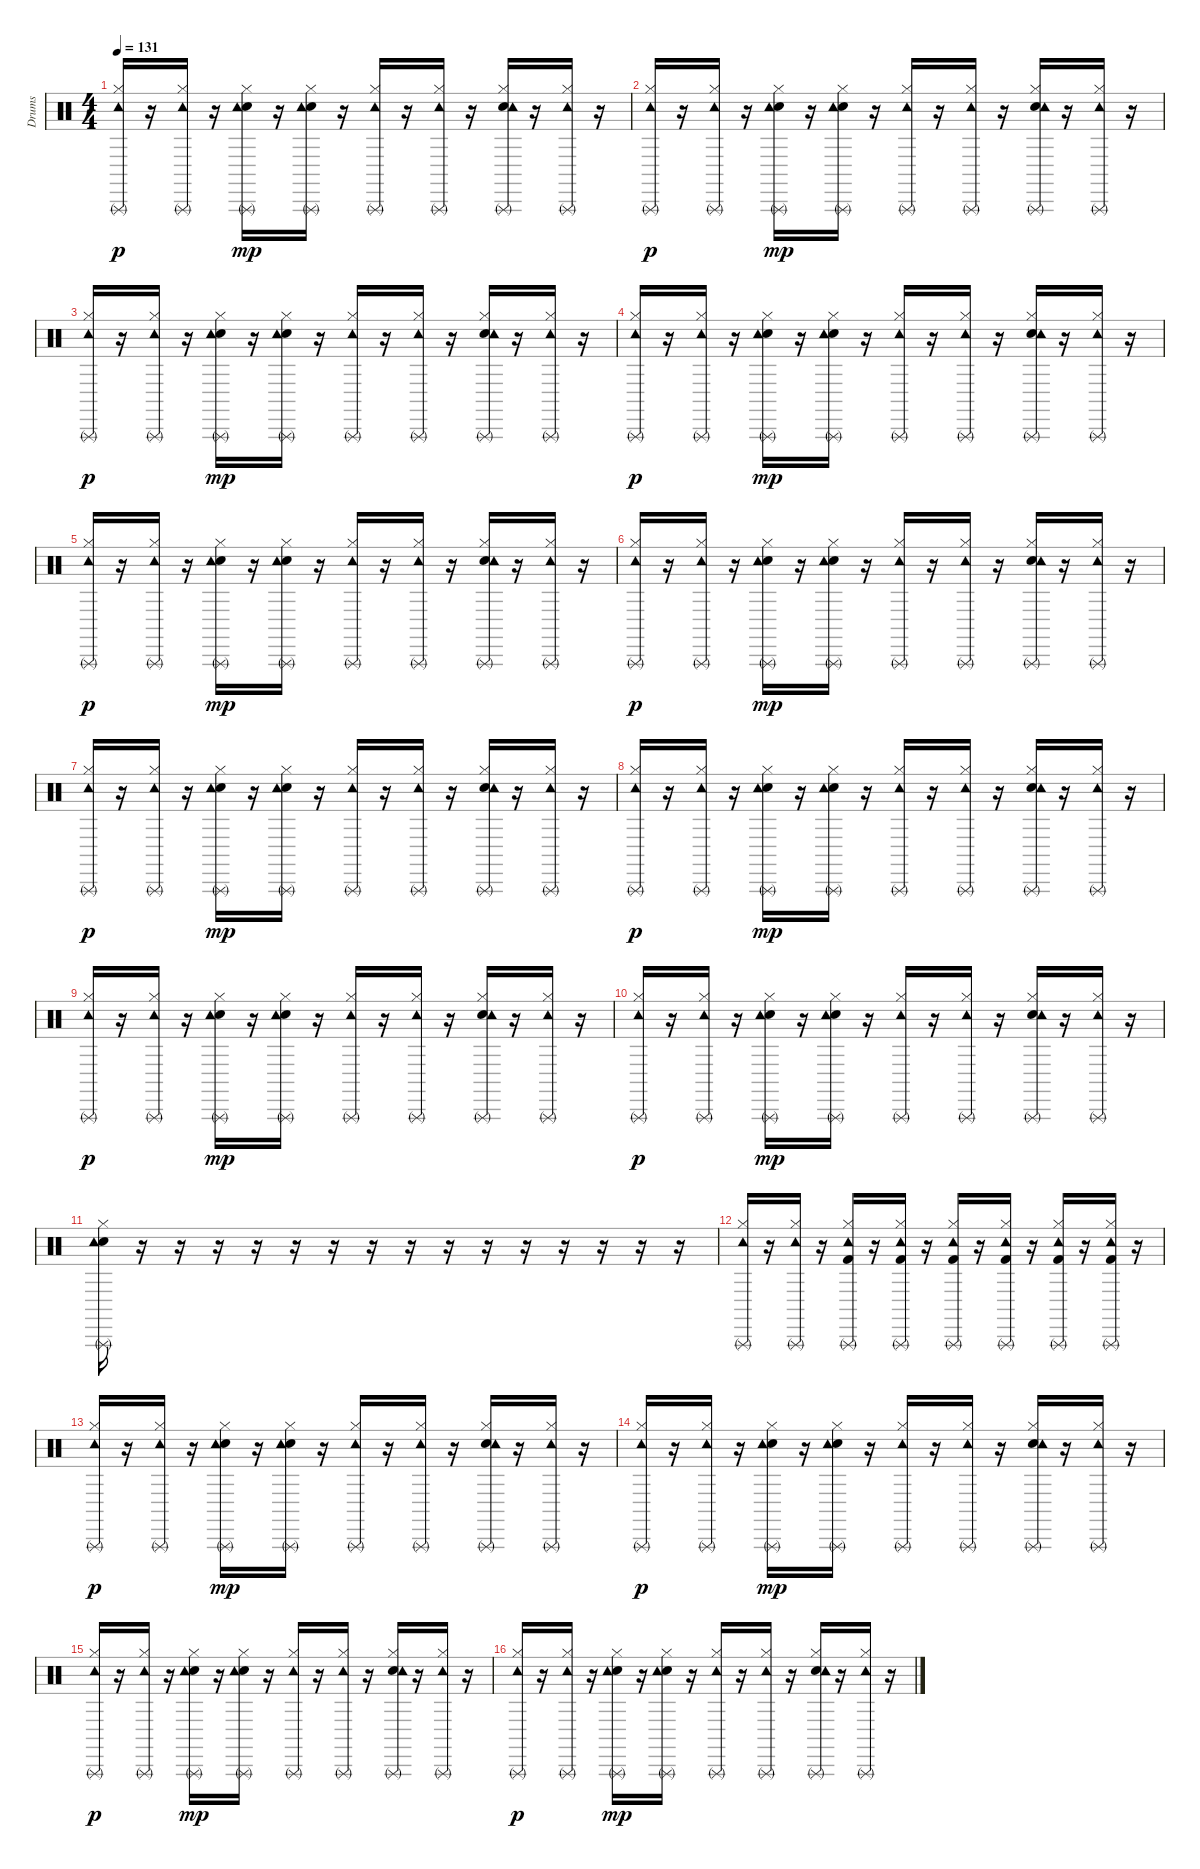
\track ("Drums" "Drums") {instrument percussion}
\staff {score}
\articulation defaults
\ts (4 4)
\tempo 131
\clef neutral
\ks c
("Tambourine (hit)" "Hi-Hat (closed)" "Triangle (rnute)").16{dy p} r.16 ("Tambourine (hit)" "Hi-Hat (closed)" "Triangle (rnute)").16 r.16 ("Electric Snare (hit)" "Tambourine (hit)" "Hi-Hat (closed)" "Triangle (rnute)").16{dy mp} r.16 ("Electric Snare (hit)" "Tambourine (hit)" "Hi-Hat (closed)" "Triangle (rnute)").16 r.16 ("Tambourine (hit)" "Hi-Hat (closed)" "Triangle (rnute)").16 r.16 ("Tambourine (hit)" "Hi-Hat (closed)" "Triangle (rnute)").16 r.16 ("Electric Snare (hit)" "Tambourine (hit)" "Hi-Hat (closed)" "Triangle (rnute)").16 r.16 ("Tambourine (hit)" "Hi-Hat (closed)" "Triangle (rnute)").16 r.16 |
("Tambourine (hit)" "Hi-Hat (closed)" "Triangle (rnute)").16{dy p} r.16 ("Tambourine (hit)" "Hi-Hat (closed)" "Triangle (rnute)").16 r.16 ("Electric Snare (hit)" "Tambourine (hit)" "Hi-Hat (closed)" "Triangle (rnute)").16{dy mp} r.16 ("Electric Snare (hit)" "Tambourine (hit)" "Hi-Hat (closed)" "Triangle (rnute)").16 r.16 ("Tambourine (hit)" "Hi-Hat (closed)" "Triangle (rnute)").16 r.16 ("Tambourine (hit)" "Hi-Hat (closed)" "Triangle (rnute)").16 r.16 ("Electric Snare (hit)" "Tambourine (hit)" "Hi-Hat (closed)" "Triangle (rnute)").16 r.16 ("Tambourine (hit)" "Hi-Hat (closed)" "Triangle (rnute)").16 r.16 |
("Tambourine (hit)" "Hi-Hat (closed)" "Triangle (rnute)").16{dy p} r.16 ("Tambourine (hit)" "Hi-Hat (closed)" "Triangle (rnute)").16 r.16 ("Electric Snare (hit)" "Tambourine (hit)" "Hi-Hat (closed)" "Triangle (rnute)").16{dy mp} r.16 ("Electric Snare (hit)" "Tambourine (hit)" "Hi-Hat (closed)" "Triangle (rnute)").16 r.16 ("Tambourine (hit)" "Hi-Hat (closed)" "Triangle (rnute)").16 r.16 ("Tambourine (hit)" "Hi-Hat (closed)" "Triangle (rnute)").16 r.16 ("Electric Snare (hit)" "Tambourine (hit)" "Hi-Hat (closed)" "Triangle (rnute)").16 r.16 ("Tambourine (hit)" "Hi-Hat (closed)" "Triangle (rnute)").16 r.16 |
("Tambourine (hit)" "Hi-Hat (closed)" "Triangle (rnute)").16{dy p} r.16 ("Tambourine (hit)" "Hi-Hat (closed)" "Triangle (rnute)").16 r.16 ("Electric Snare (hit)" "Tambourine (hit)" "Hi-Hat (closed)" "Triangle (rnute)").16{dy mp} r.16 ("Electric Snare (hit)" "Tambourine (hit)" "Hi-Hat (closed)" "Triangle (rnute)").16 r.16 ("Tambourine (hit)" "Hi-Hat (closed)" "Triangle (rnute)").16 r.16 ("Tambourine (hit)" "Hi-Hat (closed)" "Triangle (rnute)").16 r.16 ("Electric Snare (hit)" "Tambourine (hit)" "Hi-Hat (closed)" "Triangle (rnute)").16 r.16 ("Tambourine (hit)" "Hi-Hat (closed)" "Triangle (rnute)").16 r.16 |
("Tambourine (hit)" "Hi-Hat (closed)" "Triangle (rnute)").16{dy p} r.16 ("Tambourine (hit)" "Hi-Hat (closed)" "Triangle (rnute)").16 r.16 ("Electric Snare (hit)" "Tambourine (hit)" "Hi-Hat (closed)" "Triangle (rnute)").16{dy mp} r.16 ("Electric Snare (hit)" "Tambourine (hit)" "Hi-Hat (closed)" "Triangle (rnute)").16 r.16 ("Tambourine (hit)" "Hi-Hat (closed)" "Triangle (rnute)").16 r.16 ("Tambourine (hit)" "Hi-Hat (closed)" "Triangle (rnute)").16 r.16 ("Electric Snare (hit)" "Tambourine (hit)" "Hi-Hat (closed)" "Triangle (rnute)").16 r.16 ("Tambourine (hit)" "Hi-Hat (closed)" "Triangle (rnute)").16 r.16 |
("Tambourine (hit)" "Hi-Hat (closed)" "Triangle (rnute)").16{dy p} r.16 ("Tambourine (hit)" "Hi-Hat (closed)" "Triangle (rnute)").16 r.16 ("Electric Snare (hit)" "Tambourine (hit)" "Hi-Hat (closed)" "Triangle (rnute)").16{dy mp} r.16 ("Electric Snare (hit)" "Tambourine (hit)" "Hi-Hat (closed)" "Triangle (rnute)").16 r.16 ("Tambourine (hit)" "Hi-Hat (closed)" "Triangle (rnute)").16 r.16 ("Tambourine (hit)" "Hi-Hat (closed)" "Triangle (rnute)").16 r.16 ("Electric Snare (hit)" "Tambourine (hit)" "Hi-Hat (closed)" "Triangle (rnute)").16 r.16 ("Tambourine (hit)" "Hi-Hat (closed)" "Triangle (rnute)").16 r.16 |
("Tambourine (hit)" "Hi-Hat (closed)" "Triangle (rnute)").16{dy p} r.16 ("Tambourine (hit)" "Hi-Hat (closed)" "Triangle (rnute)").16 r.16 ("Electric Snare (hit)" "Tambourine (hit)" "Hi-Hat (closed)" "Triangle (rnute)").16{dy mp} r.16 ("Electric Snare (hit)" "Tambourine (hit)" "Hi-Hat (closed)" "Triangle (rnute)").16 r.16 ("Tambourine (hit)" "Hi-Hat (closed)" "Triangle (rnute)").16 r.16 ("Tambourine (hit)" "Hi-Hat (closed)" "Triangle (rnute)").16 r.16 ("Electric Snare (hit)" "Tambourine (hit)" "Hi-Hat (closed)" "Triangle (rnute)").16 r.16 ("Tambourine (hit)" "Hi-Hat (closed)" "Triangle (rnute)").16 r.16 |
("Tambourine (hit)" "Hi-Hat (closed)" "Triangle (rnute)").16{dy p} r.16 ("Tambourine (hit)" "Hi-Hat (closed)" "Triangle (rnute)").16 r.16 ("Electric Snare (hit)" "Tambourine (hit)" "Hi-Hat (closed)" "Triangle (rnute)").16{dy mp} r.16 ("Electric Snare (hit)" "Tambourine (hit)" "Hi-Hat (closed)" "Triangle (rnute)").16 r.16 ("Tambourine (hit)" "Hi-Hat (closed)" "Triangle (rnute)").16 r.16 ("Tambourine (hit)" "Hi-Hat (closed)" "Triangle (rnute)").16 r.16 ("Electric Snare (hit)" "Tambourine (hit)" "Hi-Hat (closed)" "Triangle (rnute)").16 r.16 ("Tambourine (hit)" "Hi-Hat (closed)" "Triangle (rnute)").16 r.16 |
("Tambourine (hit)" "Hi-Hat (closed)" "Triangle (rnute)").16{dy p} r.16 ("Tambourine (hit)" "Hi-Hat (closed)" "Triangle (rnute)").16 r.16 ("Electric Snare (hit)" "Tambourine (hit)" "Hi-Hat (closed)" "Triangle (rnute)").16{dy mp} r.16 ("Electric Snare (hit)" "Tambourine (hit)" "Hi-Hat (closed)" "Triangle (rnute)").16 r.16 ("Tambourine (hit)" "Hi-Hat (closed)" "Triangle (rnute)").16 r.16 ("Tambourine (hit)" "Hi-Hat (closed)" "Triangle (rnute)").16 r.16 ("Electric Snare (hit)" "Tambourine (hit)" "Hi-Hat (closed)" "Triangle (rnute)").16 r.16 ("Tambourine (hit)" "Hi-Hat (closed)" "Triangle (rnute)").16 r.16 |
("Tambourine (hit)" "Hi-Hat (closed)" "Triangle (rnute)").16{dy p} r.16 ("Tambourine (hit)" "Hi-Hat (closed)" "Triangle (rnute)").16 r.16 ("Electric Snare (hit)" "Tambourine (hit)" "Hi-Hat (closed)" "Triangle (rnute)").16{dy mp} r.16 ("Electric Snare (hit)" "Tambourine (hit)" "Hi-Hat (closed)" "Triangle (rnute)").16 r.16 ("Tambourine (hit)" "Hi-Hat (closed)" "Triangle (rnute)").16 r.16 ("Tambourine (hit)" "Hi-Hat (closed)" "Triangle (rnute)").16 r.16 ("Electric Snare (hit)" "Tambourine (hit)" "Hi-Hat (closed)" "Triangle (rnute)").16 r.16 ("Tambourine (hit)" "Hi-Hat (closed)" "Triangle (rnute)").16 r.16 |
("Electric Snare (hit)" "Tambourine (hit)" "Hi-Hat (closed)" "Triangle (rnute)").16 r.16 r.16 r.16 r.16 r.16 r.16 r.16 r.16 r.16 r.16 r.16 r.16 r.16 r.16 r.16 |
("Tambourine (hit)" "Hi-Hat (closed)" "Triangle (rnute)").16 r.16 ("Tambourine (hit)" "Hi-Hat (closed)" "Triangle (rnute)").16 r.16 ("Kick (hit) 2" "Tambourine (hit)" "Hi-Hat (closed)" "Triangle (rnute)").16 r.16 ("Kick (hit) 2" "Tambourine (hit)" "Hi-Hat (closed)" "Triangle (rnute)").16 r.16 ("Kick (hit) 2" "Tambourine (hit)" "Hi-Hat (closed)" "Triangle (rnute)").16 r.16 ("Kick (hit) 2" "Tambourine (hit)" "Hi-Hat (closed)" "Triangle (rnute)").16 r.16 ("Kick (hit) 2" "Tambourine (hit)" "Hi-Hat (closed)" "Triangle (rnute)").16 r.16 ("Kick (hit) 2" "Tambourine (hit)" "Hi-Hat (closed)" "Triangle (rnute)").16 r.16 |
("Tambourine (hit)" "Hi-Hat (closed)" "Triangle (rnute)").16{dy p} r.16 ("Tambourine (hit)" "Hi-Hat (closed)" "Triangle (rnute)").16 r.16 ("Electric Snare (hit)" "Tambourine (hit)" "Hi-Hat (closed)" "Triangle (rnute)").16{dy mp} r.16 ("Electric Snare (hit)" "Tambourine (hit)" "Hi-Hat (closed)" "Triangle (rnute)").16 r.16 ("Tambourine (hit)" "Hi-Hat (closed)" "Triangle (rnute)").16 r.16 ("Tambourine (hit)" "Hi-Hat (closed)" "Triangle (rnute)").16 r.16 ("Electric Snare (hit)" "Tambourine (hit)" "Hi-Hat (closed)" "Triangle (rnute)").16 r.16 ("Tambourine (hit)" "Hi-Hat (closed)" "Triangle (rnute)").16 r.16 |
("Tambourine (hit)" "Hi-Hat (closed)" "Triangle (rnute)").16{dy p} r.16 ("Tambourine (hit)" "Hi-Hat (closed)" "Triangle (rnute)").16 r.16 ("Electric Snare (hit)" "Tambourine (hit)" "Hi-Hat (closed)" "Triangle (rnute)").16{dy mp} r.16 ("Electric Snare (hit)" "Tambourine (hit)" "Hi-Hat (closed)" "Triangle (rnute)").16 r.16 ("Tambourine (hit)" "Hi-Hat (closed)" "Triangle (rnute)").16 r.16 ("Tambourine (hit)" "Hi-Hat (closed)" "Triangle (rnute)").16 r.16 ("Electric Snare (hit)" "Tambourine (hit)" "Hi-Hat (closed)" "Triangle (rnute)").16 r.16 ("Tambourine (hit)" "Hi-Hat (closed)" "Triangle (rnute)").16 r.16 |
("Tambourine (hit)" "Hi-Hat (closed)" "Triangle (rnute)").16{dy p} r.16 ("Tambourine (hit)" "Hi-Hat (closed)" "Triangle (rnute)").16 r.16 ("Electric Snare (hit)" "Tambourine (hit)" "Hi-Hat (closed)" "Triangle (rnute)").16{dy mp} r.16 ("Electric Snare (hit)" "Tambourine (hit)" "Hi-Hat (closed)" "Triangle (rnute)").16 r.16 ("Tambourine (hit)" "Hi-Hat (closed)" "Triangle (rnute)").16 r.16 ("Tambourine (hit)" "Hi-Hat (closed)" "Triangle (rnute)").16 r.16 ("Electric Snare (hit)" "Tambourine (hit)" "Hi-Hat (closed)" "Triangle (rnute)").16 r.16 ("Tambourine (hit)" "Hi-Hat (closed)" "Triangle (rnute)").16 r.16 |
("Tambourine (hit)" "Hi-Hat (closed)" "Triangle (rnute)").16{dy p} r.16 ("Tambourine (hit)" "Hi-Hat (closed)" "Triangle (rnute)").16 r.16 ("Electric Snare (hit)" "Tambourine (hit)" "Hi-Hat (closed)" "Triangle (rnute)").16{dy mp} r.16 ("Electric Snare (hit)" "Tambourine (hit)" "Hi-Hat (closed)" "Triangle (rnute)").16 r.16 ("Tambourine (hit)" "Hi-Hat (closed)" "Triangle (rnute)").16 r.16 ("Tambourine (hit)" "Hi-Hat (closed)" "Triangle (rnute)").16 r.16 ("Electric Snare (hit)" "Tambourine (hit)" "Hi-Hat (closed)" "Triangle (rnute)").16 r.16 ("Tambourine (hit)" "Hi-Hat (closed)" "Triangle (rnute)").16 r.16
